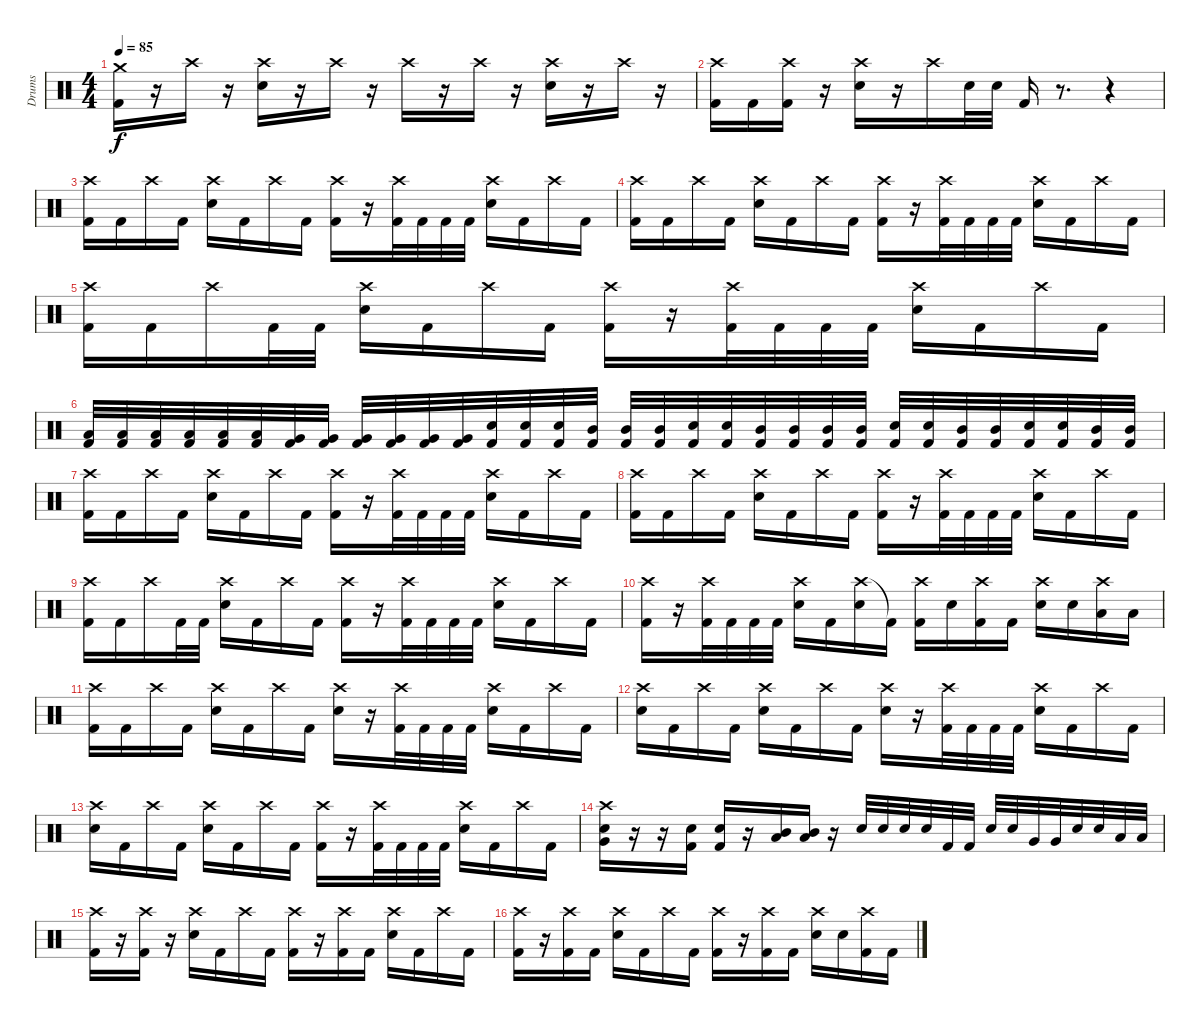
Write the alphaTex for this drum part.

\track ("Drums" "Drums") {instrument percussion}
\staff {score}
\articulation defaults
\ts (4 4)
\tempo 85
\clef neutral
\ks c
("Crash medium (hit)" "Kick (hit) 2").16{dy f} r.16 "Crash high (hit)".16 r.16 ("Crash high (hit)" "Snare (hit) 2").16 r.16 "Crash high (hit)".16 r.16 "Crash high (hit)".16 r.16 "Crash high (hit)".16 r.16 ("Crash high (hit)" "Snare (hit) 2").16 r.16 "Crash high (hit)".16 r.16 |
("Crash high (hit)" "Kick (hit) 2").16 "Kick (hit) 2".16 ("Crash high (hit)" "Kick (hit) 2").16 r.16 ("Crash high (hit)" "Snare (hit) 2").16 r.16 "Crash high (hit)".16 "Snare (hit) 2".32 "Snare (hit) 2".32 "Kick (hit) 2".16 r.8{d} r.4 |
("Crash high (hit)" "Kick (hit) 2").16 "Kick (hit) 2".16 "Crash high (hit)".16 "Kick (hit) 2".16 ("Crash high (hit)" "Snare (hit) 2").16 "Kick (hit) 2".16 "Crash high (hit)".16 "Kick (hit) 2".16 ("Crash high (hit)" "Kick (hit) 2").16 r.16 ("Crash high (hit)" "Kick (hit) 2").32 "Kick (hit) 2".32 "Kick (hit) 2".32 "Kick (hit) 2".32 ("Crash high (hit)" "Snare (hit) 2").16 "Kick (hit) 2".16 "Crash high (hit)".16 "Kick (hit) 2".16 |
("Crash high (hit)" "Kick (hit) 2").16 "Kick (hit) 2".16 "Crash high (hit)".16 "Kick (hit) 2".16 ("Crash high (hit)" "Snare (hit) 2").16 "Kick (hit) 2".16 "Crash high (hit)".16 "Kick (hit) 2".16 ("Crash high (hit)" "Kick (hit) 2").16 r.16 ("Crash high (hit)" "Kick (hit) 2").32 "Kick (hit) 2".32 "Kick (hit) 2".32 "Kick (hit) 2".32 ("Crash high (hit)" "Snare (hit) 2").16 "Kick (hit) 2".16 "Crash high (hit)".16 "Kick (hit) 2".16 |
("Crash high (hit)" "Kick (hit) 2").16 "Kick (hit) 2".16 "Crash high (hit)".16 "Kick (hit) 2".32 "Kick (hit) 2".32 ("Crash high (hit)" "Snare (hit) 2").16 "Kick (hit) 2".16 "Crash high (hit)".16 "Kick (hit) 2".16 ("Crash high (hit)" "Kick (hit) 2").16 r.16 ("Crash high (hit)" "Kick (hit) 2").32 "Kick (hit) 2".32 "Kick (hit) 2".32 "Kick (hit) 2".32 ("Crash high (hit)" "Snare (hit) 2").16 "Kick (hit) 2".16 "Crash high (hit)".16 "Kick (hit) 2".16 |
("Low Tom (hit)" "Kick (hit) 2").32 ("Low Tom (hit)" "Kick (hit) 2").32 ("Low Tom (hit)" "Kick (hit) 2").32 ("Low Tom (hit)" "Kick (hit) 2").32 ("Low Tom (hit)" "Kick (hit) 2").32 ("Low Tom (hit)" "Kick (hit) 2").32 ("Very Low Tom (hit)" "Kick (hit) 2").32 ("Very Low Tom (hit)" "Kick (hit) 2").32 ("Very Low Tom (hit)" "Kick (hit) 2").32 ("Very Low Tom (hit)" "Kick (hit) 2").32 ("Very Low Tom (hit)" "Kick (hit) 2").32 ("Very Low Tom (hit)" "Kick (hit) 2").32 ("Snare (hit) 2" "Kick (hit) 2").32 ("Snare (hit) 2" "Kick (hit) 2").32 ("Snare (hit) 2" "Kick (hit) 2").32 ("Mid Tom (hit)" "Kick (hit) 2").32 ("Mid Tom (hit)" "Kick (hit) 2").32 ("Mid Tom (hit)" "Kick (hit) 2").32 ("Snare (hit) 2" "Kick (hit) 2").32 ("Snare (hit) 2" "Kick (hit) 2").32 ("Mid Tom (hit)" "Kick (hit) 2").32 ("Mid Tom (hit)" "Kick (hit) 2").32 ("Mid Tom (hit)" "Kick (hit) 2").32 ("Mid Tom (hit)" "Kick (hit) 2").32 ("Snare (hit) 2" "Kick (hit) 2").32 ("Snare (hit) 2" "Kick (hit) 2").32 ("Mid Tom (hit)" "Kick (hit) 2").32 ("Mid Tom (hit)" "Kick (hit) 2").32 ("Snare (hit) 2" "Kick (hit) 2").32 ("Snare (hit) 2" "Kick (hit) 2").32 ("Mid Tom (hit)" "Kick (hit) 2").32 ("Mid Tom (hit)" "Kick (hit) 2").32 |
("Crash high (hit)" "Kick (hit) 2").16 "Kick (hit) 2".16 "Crash high (hit)".16 "Kick (hit) 2".16 ("Crash high (hit)" "Snare (hit) 2").16 "Kick (hit) 2".16 "Crash high (hit)".16 "Kick (hit) 2".16 ("Crash high (hit)" "Kick (hit) 2").16 r.16 ("Crash high (hit)" "Kick (hit) 2").32 "Kick (hit) 2".32 "Kick (hit) 2".32 "Kick (hit) 2".32 ("Crash high (hit)" "Snare (hit) 2").16 "Kick (hit) 2".16 "Crash high (hit)".16 "Kick (hit) 2".16 |
("Crash high (hit)" "Kick (hit) 2").16 "Kick (hit) 2".16 "Crash high (hit)".16 "Kick (hit) 2".16 ("Crash high (hit)" "Snare (hit) 2").16 "Kick (hit) 2".16 "Crash high (hit)".16 "Kick (hit) 2".16 ("Crash high (hit)" "Kick (hit) 2").16 r.16 ("Crash high (hit)" "Kick (hit) 2").32 "Kick (hit) 2".32 "Kick (hit) 2".32 "Kick (hit) 2".32 ("Crash high (hit)" "Snare (hit) 2").16 "Kick (hit) 2".16 "Crash high (hit)".16 "Kick (hit) 2".16 |
("Crash high (hit)" "Kick (hit) 2").16 "Kick (hit) 2".16 "Crash high (hit)".16 "Kick (hit) 2".32 "Kick (hit) 2".32 ("Crash high (hit)" "Snare (hit) 2").16 "Kick (hit) 2".16 "Crash high (hit)".16 "Kick (hit) 2".16 ("Crash high (hit)" "Kick (hit) 2").16 r.16 ("Crash high (hit)" "Kick (hit) 2").32 "Kick (hit) 2".32 "Kick (hit) 2".32 "Kick (hit) 2".32 ("Crash high (hit)" "Snare (hit) 2").16 "Kick (hit) 2".16 "Crash high (hit)".16 "Kick (hit) 2".16 |
("Crash high (hit)" "Kick (hit) 2").16 r.16 ("Crash high (hit)" "Kick (hit) 2").32 "Kick (hit) 2".32 "Kick (hit) 2".32 "Kick (hit) 2".32 ("Crash high (hit)" "Snare (hit) 2").16 "Kick (hit) 2".16 ("Crash high (hit)" "Snare (hit) 2").16 "Kick (hit) 2"{t}.16 ("Crash high (hit)" "Kick (hit) 2").16 "Snare (hit) 2".16 ("Crash high (hit)" "Kick (hit) 2").16 "Kick (hit) 2".16 ("Crash high (hit)" "Snare (hit) 2").16 "Snare (hit) 2".16 ("Crash high (hit)" "Low Tom (hit)").16 "Low Tom (hit)".16 |
("Crash high (hit)" "Kick (hit) 2").16 "Kick (hit) 2".16 "Crash high (hit)".16 "Kick (hit) 2".16 ("Crash high (hit)" "Snare (hit) 2").16 "Kick (hit) 2".16 "Crash high (hit)".16 "Kick (hit) 2".16 ("Crash high (hit)" "Snare (hit) 2").16 r.16 ("Crash high (hit)" "Kick (hit) 2").32 "Kick (hit) 2".32 "Kick (hit) 2".32 "Kick (hit) 2".32 ("Crash high (hit)" "Snare (hit) 2").16 "Kick (hit) 2".16 "Crash high (hit)".16 "Kick (hit) 2".16 |
("Crash high (hit)" "Snare (hit) 2").16 "Kick (hit) 2".16 "Crash high (hit)".16 "Kick (hit) 2".16 ("Crash high (hit)" "Snare (hit) 2").16 "Kick (hit) 2".16 "Crash high (hit)".16 "Kick (hit) 2".16 ("Crash high (hit)" "Snare (hit) 2").16 r.16 ("Crash high (hit)" "Kick (hit) 2").32 "Kick (hit) 2".32 "Kick (hit) 2".32 "Kick (hit) 2".32 ("Crash high (hit)" "Snare (hit) 2").16 "Kick (hit) 2".16 "Crash high (hit)".16 "Kick (hit) 2".16 |
("Crash high (hit)" "Snare (hit) 2").16 "Kick (hit) 2".16 "Crash high (hit)".16 "Kick (hit) 2".16 ("Crash high (hit)" "Snare (hit) 2").16 "Kick (hit) 2".16 "Crash high (hit)".16 "Kick (hit) 2".16 ("Crash high (hit)" "Kick (hit) 2").16 r.16 ("Crash high (hit)" "Kick (hit) 2").32 "Kick (hit) 2".32 "Kick (hit) 2".32 "Kick (hit) 2".32 ("Crash high (hit)" "Snare (hit) 2").16 "Kick (hit) 2".16 "Crash high (hit)".16 "Kick (hit) 2".16 |
("Crash high (hit)" "Snare (hit) 2" "Very Low Tom (hit)").16 r.16 r.16 ("Snare (hit) 2" "Kick (hit) 2").16 ("Snare (hit) 2" "Kick (hit) 2").16 r.16 ("Low Tom (hit)" "Mid Tom (hit)").16 ("Low Tom (hit)" "Mid Tom (hit)").16 r.16 "Snare (hit) 2".32 "Snare (hit) 2".32 "Snare (hit) 2".32 "Snare (hit) 2".32 "Kick (hit) 2".32 "Kick (hit) 2".32 "Snare (hit) 2".32 "Snare (hit) 2".32 "Very Low Tom (hit)".32 "Very Low Tom (hit)".32 "Snare (hit) 2".32 "Snare (hit) 2".32 "Low Tom (hit)".32 "Low Tom (hit)".32 |
("Crash high (hit)" "Kick (hit) 2").16 r.16 ("Crash high (hit)" "Kick (hit) 2").16 r.16 ("Crash high (hit)" "Snare (hit) 2").16 "Kick (hit) 2".16 "Crash high (hit)".16 "Kick (hit) 2".16 ("Crash high (hit)" "Kick (hit) 2").16 r.16 ("Crash high (hit)" "Kick (hit) 2").16 "Kick (hit) 2".16 ("Crash high (hit)" "Snare (hit) 2").16 "Kick (hit) 2".16 "Crash high (hit)".16 "Kick (hit) 2".16 |
("Crash high (hit)" "Kick (hit) 2").16 r.16 ("Crash high (hit)" "Kick (hit) 2").16 "Kick (hit) 2".16 ("Crash high (hit)" "Snare (hit) 2").16 "Kick (hit) 2".16 "Crash high (hit)".16 "Kick (hit) 2".16 ("Crash high (hit)" "Kick (hit) 2").16 r.16 ("Crash high (hit)" "Kick (hit) 2").16 "Kick (hit) 2".16 ("Crash high (hit)" "Snare (hit) 2").16 "Snare (hit) 2".16 ("Crash high (hit)" "Kick (hit) 2").16 "Kick (hit) 2".16
